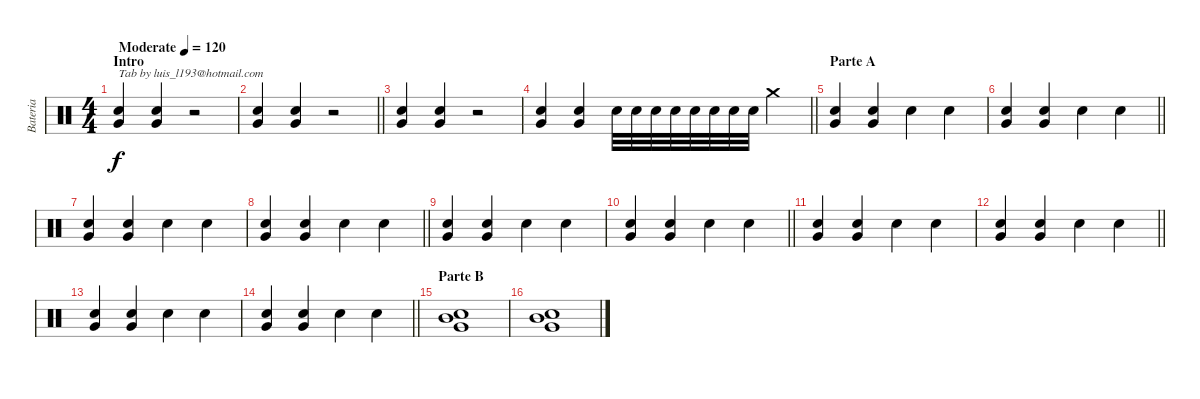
\track ("Bateria" "Bateria") {instrument percussion}
\staff {score}
\articulation defaults
\ts (4 4)
\section ("" "Intro")
\tempo (120 "Moderate")
\clef neutral
\ks c
("Snare (hit) 2" "Very Low Tom (hit)").4{txt "Tab by luis_l193@hotmail.com" dy f volume 16} ("Snare (hit) 2" "Very Low Tom (hit)").4 r.2 |
\barLineRight lightlight
("Snare (hit) 2" "Very Low Tom (hit)").4 ("Snare (hit) 2" "Very Low Tom (hit)").4 r.2 |
("Snare (hit) 2" "Very Low Tom (hit)").4 ("Snare (hit) 2" "Very Low Tom (hit)").4 r.2 |
\barLineRight lightlight
("Snare (hit) 2" "Very Low Tom (hit)").4 ("Snare (hit) 2" "Very Low Tom (hit)").4 "Snare (hit) 2".32 "Snare (hit) 2".32 "Snare (hit) 2".32 "Snare (hit) 2".32 "Snare (hit) 2".32 "Snare (hit) 2".32 "Snare (hit) 2".32 "Snare (hit) 2".32 "Crash medium (hit)".4 |
\section ("" "Parte A")
("Snare (hit) 2" "Very Low Tom (hit)").4{volume 13} ("Snare (hit) 2" "Very Low Tom (hit)").4 "Snare (hit) 2".4 "Snare (hit) 2".4 |
\barLineRight lightlight
("Snare (hit) 2" "Very Low Tom (hit)").4 ("Snare (hit) 2" "Very Low Tom (hit)").4 "Snare (hit) 2".4 "Snare (hit) 2".4 |
("Snare (hit) 2" "Very Low Tom (hit)").4 ("Snare (hit) 2" "Very Low Tom (hit)").4 "Snare (hit) 2".4 "Snare (hit) 2".4 |
\barLineRight lightlight
("Snare (hit) 2" "Very Low Tom (hit)").4 ("Snare (hit) 2" "Very Low Tom (hit)").4 "Snare (hit) 2".4 "Snare (hit) 2".4 |
("Snare (hit) 2" "Very Low Tom (hit)").4 ("Snare (hit) 2" "Very Low Tom (hit)").4 "Snare (hit) 2".4 "Snare (hit) 2".4 |
\barLineRight lightlight
("Snare (hit) 2" "Very Low Tom (hit)").4 ("Snare (hit) 2" "Very Low Tom (hit)").4 "Snare (hit) 2".4 "Snare (hit) 2".4 |
("Snare (hit) 2" "Very Low Tom (hit)").4 ("Snare (hit) 2" "Very Low Tom (hit)").4 "Snare (hit) 2".4 "Snare (hit) 2".4 |
\barLineRight lightlight
("Snare (hit) 2" "Very Low Tom (hit)").4 ("Snare (hit) 2" "Very Low Tom (hit)").4 "Snare (hit) 2".4 "Snare (hit) 2".4 |
("Snare (hit) 2" "Very Low Tom (hit)").4 ("Snare (hit) 2" "Very Low Tom (hit)").4 "Snare (hit) 2".4 "Snare (hit) 2".4 |
\barLineRight lightlight
("Snare (hit) 2" "Very Low Tom (hit)").4 ("Snare (hit) 2" "Very Low Tom (hit)").4 "Snare (hit) 2".4 "Snare (hit) 2".4 |
\section ("" "Parte B")
("Snare (hit) 2" "Very Low Tom (hit)" "Mid Tom (hit)").1 |
("Snare (hit) 2" "Very Low Tom (hit)" "Mid Tom (hit)").1
